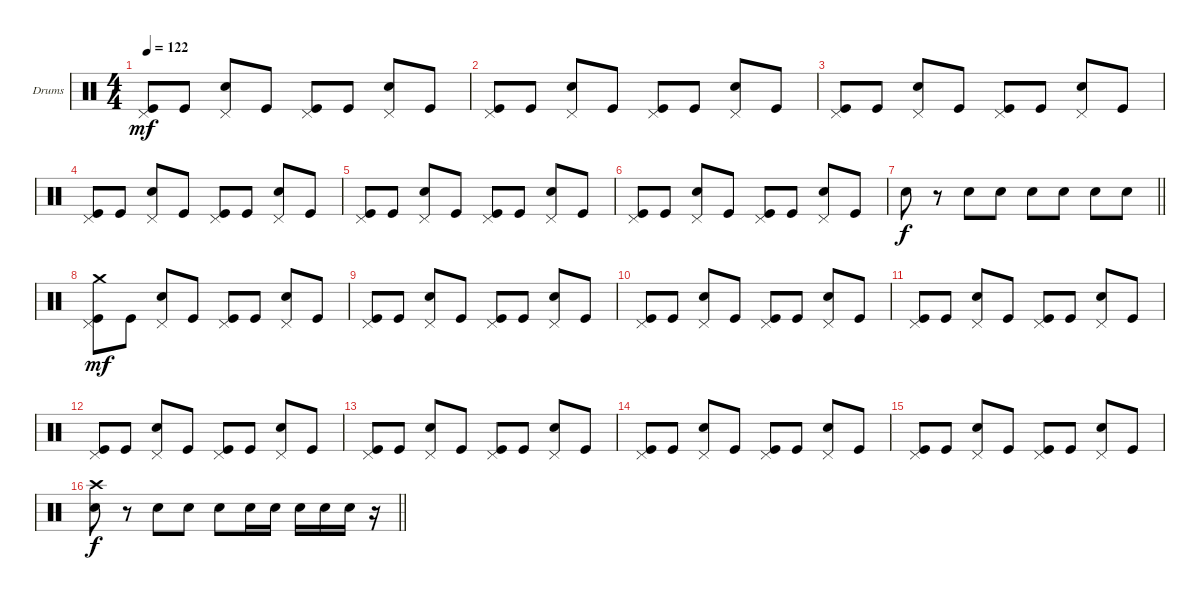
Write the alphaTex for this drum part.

\defaultSystemsLayout 4
\bracketExtendMode groupsimilarinstruments
\firstSystemTrackNameOrientation horizontal
\otherSystemsTrackNameOrientation horizontal
\track ("Drum" "Drums") {instrument percussion}
\staff {score}
\articulation defaults
\ts (4 4)
\tempo 122
\clef neutral
\ks c
("Kick (hit)" "Pedal Hi-Hat (hit)").8{dy mf} "Kick (hit)".8 ("Snare (hit) 2" "Pedal Hi-Hat (hit)").8 "Kick (hit)".8 ("Kick (hit)" "Pedal Hi-Hat (hit)").8 "Kick (hit)".8 ("Snare (hit) 2" "Pedal Hi-Hat (hit)").8 "Kick (hit)".8 |
("Kick (hit)" "Pedal Hi-Hat (hit)").8 "Kick (hit)".8 ("Snare (hit) 2" "Pedal Hi-Hat (hit)").8 "Kick (hit)".8 ("Kick (hit)" "Pedal Hi-Hat (hit)").8 "Kick (hit)".8 ("Snare (hit) 2" "Pedal Hi-Hat (hit)").8 "Kick (hit)".8 |
("Kick (hit)" "Pedal Hi-Hat (hit)").8 "Kick (hit)".8 ("Snare (hit) 2" "Pedal Hi-Hat (hit)").8 "Kick (hit)".8 ("Kick (hit)" "Pedal Hi-Hat (hit)").8 "Kick (hit)".8 ("Snare (hit) 2" "Pedal Hi-Hat (hit)").8 "Kick (hit)".8 |
("Kick (hit)" "Pedal Hi-Hat (hit)").8 "Kick (hit)".8 ("Snare (hit) 2" "Pedal Hi-Hat (hit)").8 "Kick (hit)".8 ("Kick (hit)" "Pedal Hi-Hat (hit)").8 "Kick (hit)".8 ("Snare (hit) 2" "Pedal Hi-Hat (hit)").8 "Kick (hit)".8 |
("Kick (hit)" "Pedal Hi-Hat (hit)").8 "Kick (hit)".8 ("Snare (hit) 2" "Pedal Hi-Hat (hit)").8 "Kick (hit)".8 ("Kick (hit)" "Pedal Hi-Hat (hit)").8 "Kick (hit)".8 ("Snare (hit) 2" "Pedal Hi-Hat (hit)").8 "Kick (hit)".8 |
("Kick (hit)" "Pedal Hi-Hat (hit)").8 "Kick (hit)".8 ("Snare (hit) 2" "Pedal Hi-Hat (hit)").8 "Kick (hit)".8 ("Kick (hit)" "Pedal Hi-Hat (hit)").8 "Kick (hit)".8 ("Snare (hit) 2" "Pedal Hi-Hat (hit)").8 "Kick (hit)".8 |
\barLineRight lightlight "Snare (hit) 2".8{dy f}
r.8 "Snare (hit) 2".8 "Snare (hit) 2".8 "Snare (hit) 2".8 "Snare (hit) 2".8 "Snare (hit) 2".8 "Snare (hit) 2".8 |
("Kick (hit)" "Pedal Hi-Hat (hit)" "Crash medium (hit)").8{dy mf} "Kick (hit)".8 ("Snare (hit) 2" "Pedal Hi-Hat (hit)").8 "Kick (hit)".8 ("Kick (hit)" "Pedal Hi-Hat (hit)").8 "Kick (hit)".8 ("Snare (hit) 2" "Pedal Hi-Hat (hit)").8 "Kick (hit)".8 |
("Kick (hit)" "Pedal Hi-Hat (hit)").8 "Kick (hit)".8 ("Snare (hit) 2" "Pedal Hi-Hat (hit)").8 "Kick (hit)".8 ("Kick (hit)" "Pedal Hi-Hat (hit)").8 "Kick (hit)".8 ("Snare (hit) 2" "Pedal Hi-Hat (hit)").8 "Kick (hit)".8 |
("Kick (hit)" "Pedal Hi-Hat (hit)").8 "Kick (hit)".8 ("Snare (hit) 2" "Pedal Hi-Hat (hit)").8 "Kick (hit)".8 ("Kick (hit)" "Pedal Hi-Hat (hit)").8 "Kick (hit)".8 ("Snare (hit) 2" "Pedal Hi-Hat (hit)").8 "Kick (hit)".8 |
("Kick (hit)" "Pedal Hi-Hat (hit)").8 "Kick (hit)".8 ("Snare (hit) 2" "Pedal Hi-Hat (hit)").8 "Kick (hit)".8 ("Kick (hit)" "Pedal Hi-Hat (hit)").8 "Kick (hit)".8 ("Snare (hit) 2" "Pedal Hi-Hat (hit)").8 "Kick (hit)".8 |
("Kick (hit)" "Pedal Hi-Hat (hit)").8 "Kick (hit)".8 ("Snare (hit) 2" "Pedal Hi-Hat (hit)").8 "Kick (hit)".8 ("Kick (hit)" "Pedal Hi-Hat (hit)").8 "Kick (hit)".8 ("Snare (hit) 2" "Pedal Hi-Hat (hit)").8 "Kick (hit)".8 |
("Kick (hit)" "Pedal Hi-Hat (hit)").8 "Kick (hit)".8 ("Snare (hit) 2" "Pedal Hi-Hat (hit)").8 "Kick (hit)".8 ("Kick (hit)" "Pedal Hi-Hat (hit)").8 "Kick (hit)".8 ("Snare (hit) 2" "Pedal Hi-Hat (hit)").8 "Kick (hit)".8 |
("Kick (hit)" "Pedal Hi-Hat (hit)").8 "Kick (hit)".8 ("Snare (hit) 2" "Pedal Hi-Hat (hit)").8 "Kick (hit)".8 ("Kick (hit)" "Pedal Hi-Hat (hit)").8 "Kick (hit)".8 ("Snare (hit) 2" "Pedal Hi-Hat (hit)").8 "Kick (hit)".8 |
("Kick (hit)" "Pedal Hi-Hat (hit)").8 "Kick (hit)".8 ("Snare (hit) 2" "Pedal Hi-Hat (hit)").8 "Kick (hit)".8 ("Kick (hit)" "Pedal Hi-Hat (hit)").8 "Kick (hit)".8 ("Snare (hit) 2" "Pedal Hi-Hat (hit)").8 "Kick (hit)".8 |
\barLineRight lightlight
("Snare (hit) 2" "Crash high (hit)").8{dy f} r.8 "Snare (hit) 2".8 "Snare (hit) 2".8 "Snare (hit) 2".8 "Snare (hit) 2".16 "Snare (hit) 2".16 "Snare (hit) 2".16 "Snare (hit) 2".16 "Snare (hit) 2".16 r.16
